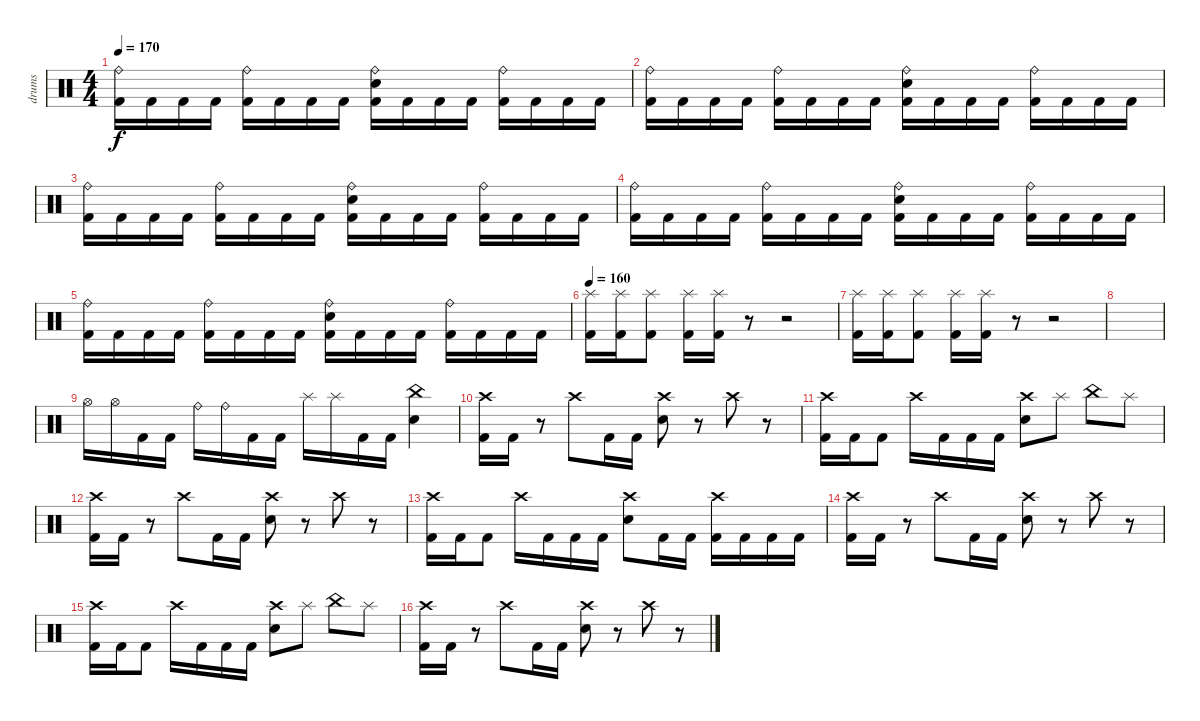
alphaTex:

\track ("drums" "drums") {instrument percussion}
\staff {score}
\articulation defaults
\ts (4 4)
\tempo 170
\clef neutral
\ks c
("Ride (bell)" "Kick (hit) 2").16{dy f} "Kick (hit) 2".16 "Kick (hit) 2".16 "Kick (hit) 2".16 ("Ride (bell)" "Kick (hit) 2").16 "Kick (hit) 2".16 "Kick (hit) 2".16 "Kick (hit) 2".16 ("Ride (bell)" "Electric Snare (hit)" "Kick (hit) 2").16 "Kick (hit) 2".16 "Kick (hit) 2".16 "Kick (hit) 2".16 ("Ride (bell)" "Kick (hit) 2").16 "Kick (hit) 2".16 "Kick (hit) 2".16 "Kick (hit) 2".16 |
("Ride (bell)" "Kick (hit) 2").16 "Kick (hit) 2".16 "Kick (hit) 2".16 "Kick (hit) 2".16 ("Ride (bell)" "Kick (hit) 2").16 "Kick (hit) 2".16 "Kick (hit) 2".16 "Kick (hit) 2".16 ("Ride (bell)" "Electric Snare (hit)" "Kick (hit) 2").16 "Kick (hit) 2".16 "Kick (hit) 2".16 "Kick (hit) 2".16 ("Ride (bell)" "Kick (hit) 2").16 "Kick (hit) 2".16 "Kick (hit) 2".16 "Kick (hit) 2".16 |
("Ride (bell)" "Kick (hit) 2").16 "Kick (hit) 2".16 "Kick (hit) 2".16 "Kick (hit) 2".16 ("Ride (bell)" "Kick (hit) 2").16 "Kick (hit) 2".16 "Kick (hit) 2".16 "Kick (hit) 2".16 ("Ride (bell)" "Electric Snare (hit)" "Kick (hit) 2").16 "Kick (hit) 2".16 "Kick (hit) 2".16 "Kick (hit) 2".16 ("Ride (bell)" "Kick (hit) 2").16 "Kick (hit) 2".16 "Kick (hit) 2".16 "Kick (hit) 2".16 |
("Ride (bell)" "Kick (hit) 2").16 "Kick (hit) 2".16 "Kick (hit) 2".16 "Kick (hit) 2".16 ("Ride (bell)" "Kick (hit) 2").16 "Kick (hit) 2".16 "Kick (hit) 2".16 "Kick (hit) 2".16 ("Ride (bell)" "Electric Snare (hit)" "Kick (hit) 2").16 "Kick (hit) 2".16 "Kick (hit) 2".16 "Kick (hit) 2".16 ("Ride (bell)" "Kick (hit) 2").16 "Kick (hit) 2".16 "Kick (hit) 2".16 "Kick (hit) 2".16 |
("Ride (bell)" "Kick (hit) 2").16 "Kick (hit) 2".16 "Kick (hit) 2".16 "Kick (hit) 2".16 ("Ride (bell)" "Kick (hit) 2").16 "Kick (hit) 2".16 "Kick (hit) 2".16 "Kick (hit) 2".16 ("Ride (bell)" "Electric Snare (hit)" "Kick (hit) 2").16 "Kick (hit) 2".16 "Kick (hit) 2".16 "Kick (hit) 2".16 ("Ride (bell)" "Kick (hit) 2").16 "Kick (hit) 2".16 "Kick (hit) 2".16 "Kick (hit) 2".16 |
\tempo 160
("Splash (hit)" "Kick (hit) 2").16 ("Splash (hit)" "Kick (hit) 2").16 ("Splash (hit)" "Kick (hit) 2").8 ("Splash (hit)" "Kick (hit) 2").16 ("Splash (hit)" "Kick (hit) 2").16 r.8 r.2 |
("Splash (hit)" "Kick (hit) 2").16 ("Splash (hit)" "Kick (hit) 2").16 ("Splash (hit)" "Kick (hit) 2").8 ("Splash (hit)" "Kick (hit) 2").16 ("Splash (hit)" "Kick (hit) 2").16 r.8 r.2 |
|
"Hi-Hat (open)".16 "Hi-Hat (open)".16 "Kick (hit) 2".16 "Kick (hit) 2".16 "Ride (bell)".16 "Ride (bell)".16 "Kick (hit) 2".16 "Kick (hit) 2".16 "Splash (hit)".16 "Splash (hit)".16 "Kick (hit) 2".16 "Kick (hit) 2".16 ("China (hit)" "Electric Snare (hit)").4 |
("Crash high (hit)" "Kick (hit) 2").16 "Kick (hit) 2".16 r.8 "Crash high (hit)".8 "Kick (hit) 2".16 "Kick (hit) 2".16 ("Crash high (hit)" "Electric Snare (hit)").8 r.8 "Crash high (hit)".8 r.8 |
("Crash high (hit)" "Kick (hit) 2").16 "Kick (hit) 2".16 "Kick (hit) 2".8 "Crash high (hit)".16 "Kick (hit) 2".16 "Kick (hit) 2".16 "Kick (hit) 2".16 ("Crash high (hit)" "Electric Snare (hit)").8 "Splash (hit)".8 "China (hit)".8 "Splash (hit)".8 |
("Crash high (hit)" "Kick (hit) 2").16 "Kick (hit) 2".16 r.8 "Crash high (hit)".8 "Kick (hit) 2".16 "Kick (hit) 2".16 ("Crash high (hit)" "Electric Snare (hit)").8 r.8 "Crash high (hit)".8 r.8 |
("Crash high (hit)" "Kick (hit) 2").16 "Kick (hit) 2".16 "Kick (hit) 2".8 "Crash high (hit)".16 "Kick (hit) 2".16 "Kick (hit) 2".16 "Kick (hit) 2".16 ("Crash high (hit)" "Electric Snare (hit)").8 "Kick (hit) 2".16 "Kick (hit) 2".16 ("Crash high (hit)" "Kick (hit) 2").16 "Kick (hit) 2".16 "Kick (hit) 2".16 "Kick (hit) 2".16 |
("Crash high (hit)" "Kick (hit) 2").16 "Kick (hit) 2".16 r.8 "Crash high (hit)".8 "Kick (hit) 2".16 "Kick (hit) 2".16 ("Crash high (hit)" "Electric Snare (hit)").8 r.8 "Crash high (hit)".8 r.8 |
("Crash high (hit)" "Kick (hit) 2").16 "Kick (hit) 2".16 "Kick (hit) 2".8 "Crash high (hit)".16 "Kick (hit) 2".16 "Kick (hit) 2".16 "Kick (hit) 2".16 ("Crash high (hit)" "Electric Snare (hit)").8 "Splash (hit)".8 "China (hit)".8 "Splash (hit)".8 |
("Crash high (hit)" "Kick (hit) 2").16 "Kick (hit) 2".16 r.8 "Crash high (hit)".8 "Kick (hit) 2".16 "Kick (hit) 2".16 ("Crash high (hit)" "Electric Snare (hit)").8 r.8 "Crash high (hit)".8 r.8
